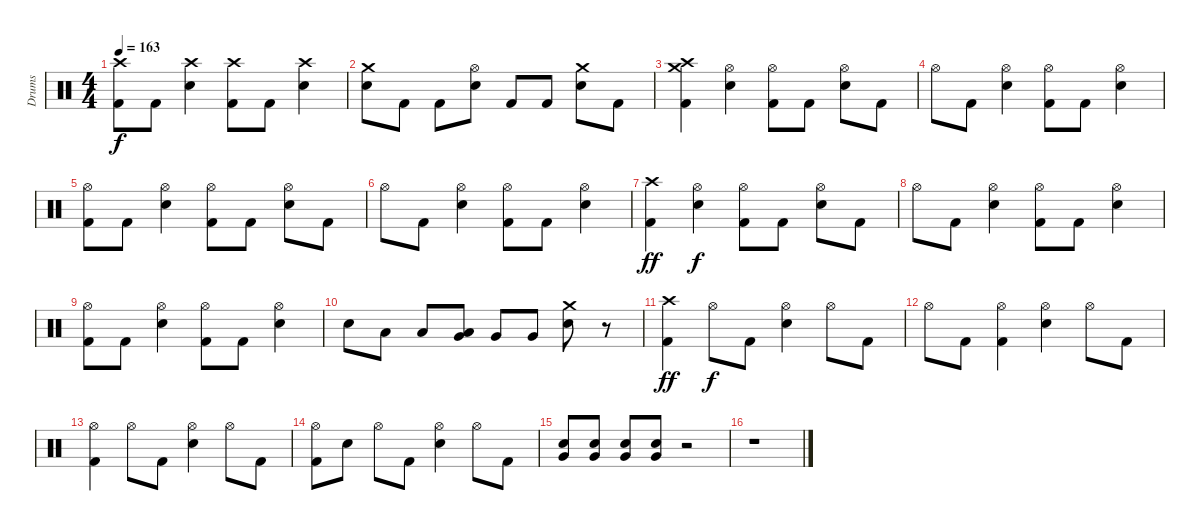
\track ("Drums" "Drums") {instrument percussion}
\staff {score}
\articulation defaults
\ts (4 4)
\tempo 163
\clef neutral
\ks c
("Crash high (hit)" "Kick (hit) 2").8{dy f} "Kick (hit) 2".8 ("Crash high (hit)" "Snare (hit) 2").4 ("Crash high (hit)" "Kick (hit) 2").8 "Kick (hit) 2".8 ("Crash high (hit)" "Snare (hit) 2").4 |
("Crash medium (hit)" "Snare (hit) 2").8 "Kick (hit) 2".8 "Kick (hit) 2".8 ("Hi-Hat (open)" "Snare (hit) 2").8 "Kick (hit) 2".8 "Kick (hit) 2".8 ("Crash medium (hit)" "Snare (hit) 2").8 "Kick (hit) 2".8 |
("Crash high (hit)" "Crash medium (hit)" "Kick (hit) 2").4 ("Hi-Hat (open)" "Snare (hit) 2").4 ("Hi-Hat (open)" "Kick (hit) 2").8 "Kick (hit) 2".8 ("Hi-Hat (open)" "Snare (hit) 2").8 "Kick (hit) 2".8 |
"Hi-Hat (open)".8 "Kick (hit) 2".8 ("Hi-Hat (open)" "Snare (hit) 2").4 ("Hi-Hat (open)" "Kick (hit) 2").8 "Kick (hit) 2".8 ("Hi-Hat (open)" "Snare (hit) 2").4 |
("Hi-Hat (open)" "Kick (hit) 2").8 "Kick (hit) 2".8 ("Hi-Hat (open)" "Snare (hit) 2").4 ("Hi-Hat (open)" "Kick (hit) 2").8 "Kick (hit) 2".8 ("Hi-Hat (open)" "Snare (hit) 2").8 "Kick (hit) 2".8 |
"Hi-Hat (open)".8 "Kick (hit) 2".8 ("Hi-Hat (open)" "Snare (hit) 2").4 ("Hi-Hat (open)" "Kick (hit) 2").8 "Kick (hit) 2".8 ("Hi-Hat (open)" "Snare (hit) 2").4 |
("Crash high (hit)" "Kick (hit) 2").4{dy ff} ("Hi-Hat (open)" "Snare (hit) 2").4{dy f} ("Hi-Hat (open)" "Kick (hit) 2").8 "Kick (hit) 2".8 ("Hi-Hat (open)" "Snare (hit) 2").8 "Kick (hit) 2".8 |
"Hi-Hat (open)".8 "Kick (hit) 2".8 ("Hi-Hat (open)" "Snare (hit) 2").4 ("Hi-Hat (open)" "Kick (hit) 2").8 "Kick (hit) 2".8 ("Hi-Hat (open)" "Snare (hit) 2").4 |
("Hi-Hat (open)" "Kick (hit) 2").8 "Kick (hit) 2".8 ("Hi-Hat (open)" "Snare (hit) 2").4 ("Hi-Hat (open)" "Kick (hit) 2").8 "Kick (hit) 2".8 ("Hi-Hat (open)" "Snare (hit) 2").4 |
"Snare (hit) 2".8 "Low Tom (hit)".8 "Low Tom (hit)".8 ("Low Tom (hit)" "Very Low Tom (hit)").8 "Very Low Tom (hit)".8 "Very Low Tom (hit)".8 ("Crash medium (hit)" "Snare (hit) 2").8 r.8 |
("Crash high (hit)" "Kick (hit) 2").4{dy ff} "Hi-Hat (open)".8{dy f} "Kick (hit) 2".8 ("Hi-Hat (open)" "Snare (hit) 2").4 "Hi-Hat (open)".8 "Kick (hit) 2".8 |
"Hi-Hat (open)".8 "Kick (hit) 2".8 ("Hi-Hat (open)" "Kick (hit) 2").4 ("Hi-Hat (open)" "Snare (hit) 2").4 "Hi-Hat (open)".8 "Kick (hit) 2".8 |
("Hi-Hat (open)" "Kick (hit) 2").4 "Hi-Hat (open)".8 "Kick (hit) 2".8 ("Hi-Hat (open)" "Snare (hit) 2").4 "Hi-Hat (open)".8 "Kick (hit) 2".8 |
("Hi-Hat (open)" "Kick (hit) 2").8 "Snare (hit) 2".8 "Hi-Hat (open)".8 "Kick (hit) 2".8 ("Hi-Hat (open)" "Snare (hit) 2").4 "Hi-Hat (open)".8 "Kick (hit) 2".8 |
("Snare (hit) 2" "Very Low Tom (hit)").8 ("Snare (hit) 2" "Very Low Tom (hit)").8 ("Snare (hit) 2" "Very Low Tom (hit)").8 ("Snare (hit) 2" "Very Low Tom (hit)").8 r.2 |
r.1
